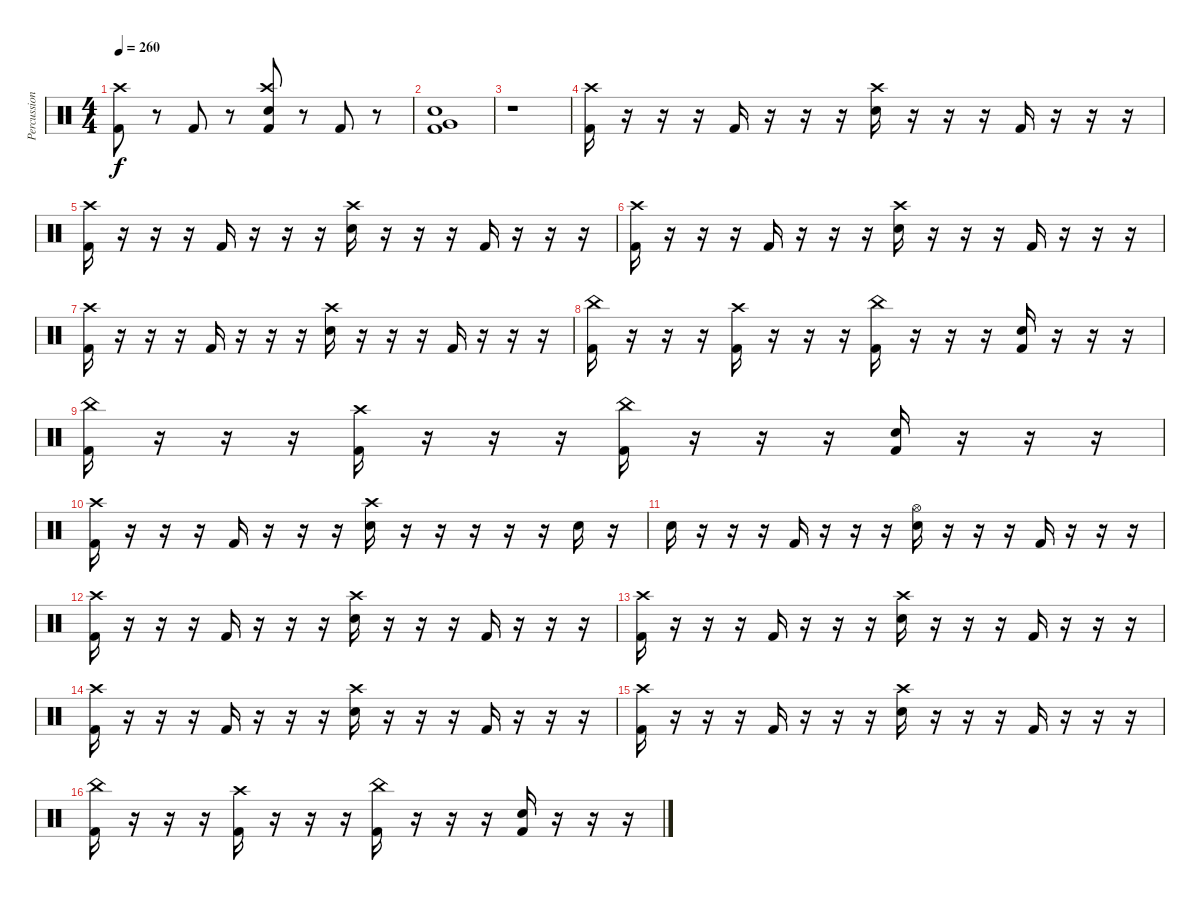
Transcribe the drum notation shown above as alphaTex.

\track ("Percussion" "Percussion") {instrument percussion}
\staff {score}
\articulation defaults
\ts (4 4)
\tempo 260
\clef neutral
\ks c
("Kick (hit) 2" "Crash high (hit)").8{dy f} r.8 "Kick (hit) 2".8 r.8 ("Kick (hit) 2" "Snare (hit) 2" "Crash high (hit)").8 r.8 "Kick (hit) 2".8 r.8 |
("Kick (hit) 2" "Snare (hit) 2" "Very Low Tom (hit)").1 |
r.1 |
("Kick (hit) 2" "Crash high (hit)").16 r.16 r.16 r.16 "Kick (hit) 2".16 r.16 r.16 r.16 ("Snare (hit) 2" "Crash high (hit)").16 r.16 r.16 r.16 "Kick (hit) 2".16 r.16 r.16 r.16 |
("Kick (hit) 2" "Crash high (hit)").16 r.16 r.16 r.16 "Kick (hit) 2".16 r.16 r.16 r.16 ("Snare (hit) 2" "Crash high (hit)").16 r.16 r.16 r.16 "Kick (hit) 2".16 r.16 r.16 r.16 |
("Kick (hit) 2" "Crash high (hit)").16 r.16 r.16 r.16 "Kick (hit) 2".16 r.16 r.16 r.16 ("Snare (hit) 2" "Crash high (hit)").16 r.16 r.16 r.16 "Kick (hit) 2".16 r.16 r.16 r.16 |
("Kick (hit) 2" "Crash high (hit)").16 r.16 r.16 r.16 "Kick (hit) 2".16 r.16 r.16 r.16 ("Snare (hit) 2" "Crash high (hit)").16 r.16 r.16 r.16 "Kick (hit) 2".16 r.16 r.16 r.16 |
("Kick (hit) 2" "China (hit)").16 r.16 r.16 r.16 ("Kick (hit) 2" "Crash high (hit)").16 r.16 r.16 r.16 ("Kick (hit) 2" "China (hit)").16 r.16 r.16 r.16 ("Kick (hit) 2" "Snare (hit) 2").16 r.16 r.16 r.16 |
("Kick (hit) 2" "China (hit)").16 r.16 r.16 r.16 ("Kick (hit) 2" "Crash high (hit)").16 r.16 r.16 r.16 ("Kick (hit) 2" "China (hit)").16 r.16 r.16 r.16 ("Kick (hit) 2" "Snare (hit) 2").16 r.16 r.16 r.16 |
("Kick (hit) 2" "Crash high (hit)").16 r.16 r.16 r.16 "Kick (hit) 2".16 r.16 r.16 r.16 ("Snare (hit) 2" "Crash high (hit)").16 r.16 r.16 r.16 r.16 r.16 "Snare (hit) 2".16 r.16 |
"Snare (hit) 2".16 r.16 r.16 r.16 "Kick (hit) 2".16 r.16 r.16 r.16 ("Snare (hit) 2" "Hi-Hat (open)").16 r.16 r.16 r.16 "Kick (hit) 2".16 r.16 r.16 r.16 |
("Kick (hit) 2" "Crash high (hit)").16 r.16 r.16 r.16 "Kick (hit) 2".16 r.16 r.16 r.16 ("Snare (hit) 2" "Crash high (hit)").16 r.16 r.16 r.16 "Kick (hit) 2".16 r.16 r.16 r.16 |
("Kick (hit) 2" "Crash high (hit)").16 r.16 r.16 r.16 "Kick (hit) 2".16 r.16 r.16 r.16 ("Snare (hit) 2" "Crash high (hit)").16 r.16 r.16 r.16 "Kick (hit) 2".16 r.16 r.16 r.16 |
("Kick (hit) 2" "Crash high (hit)").16 r.16 r.16 r.16 "Kick (hit) 2".16 r.16 r.16 r.16 ("Snare (hit) 2" "Crash high (hit)").16 r.16 r.16 r.16 "Kick (hit) 2".16 r.16 r.16 r.16 |
("Kick (hit) 2" "Crash high (hit)").16 r.16 r.16 r.16 "Kick (hit) 2".16 r.16 r.16 r.16 ("Snare (hit) 2" "Crash high (hit)").16 r.16 r.16 r.16 "Kick (hit) 2".16 r.16 r.16 r.16 |
("Kick (hit) 2" "China (hit)").16 r.16 r.16 r.16 ("Kick (hit) 2" "Crash high (hit)").16 r.16 r.16 r.16 ("Kick (hit) 2" "China (hit)").16 r.16 r.16 r.16 ("Kick (hit) 2" "Snare (hit) 2").16 r.16 r.16 r.16
